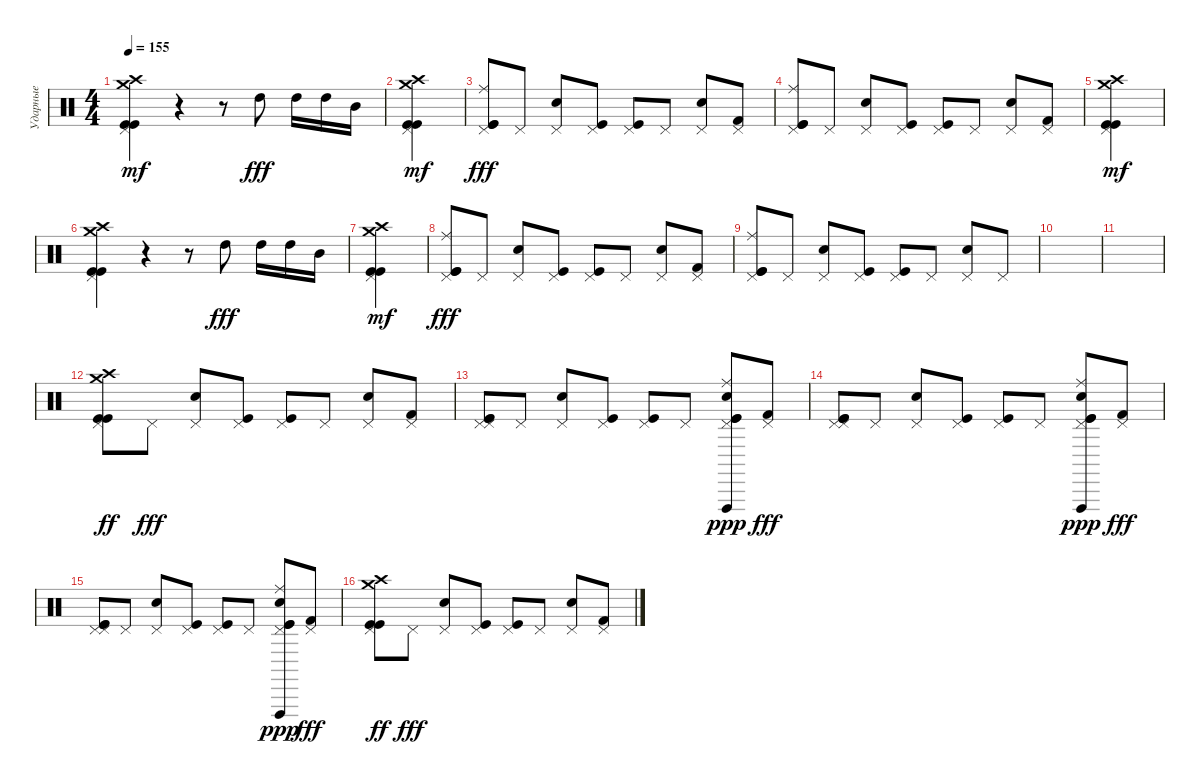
\track ("Ударные" "Ударные") {instrument percussion}
\staff
\articulation defaults
\ts (4 4)
\tempo 155
\clef neutral
\ks c
("Crash high (hit)" "Kick (hit)" "Pedal Hi-Hat (hit)" "Kick (hit)" "Crash medium (hit)").4{dy mf} r.4 r.8 "High Tom (hit)".8{dy fff} "High Tom (hit)".16 "High Tom (hit)".16 "Mid Tom (hit)".16 |
("Crash high (hit)" "Kick (hit)" "Pedal Hi-Hat (hit)" "Kick (hit)" "Crash medium (hit)").4{dy mf} |
("Kick (hit)" "Pedal Hi-Hat (hit)" "Kick (hit)" "Ride (middle)").8{dy fff} "Pedal Hi-Hat (hit)".8 ("Pedal Hi-Hat (hit)" "Snare (hit) 2").8 ("Pedal Hi-Hat (hit)" "Kick (hit)").8 ("Pedal Hi-Hat (hit)" "Kick (hit)").8 "Pedal Hi-Hat (hit)".8 ("Snare (hit) 2" "Pedal Hi-Hat (hit)").8 ("Kick (hit) 2" "Pedal Hi-Hat (hit)").8 |
("Kick (hit)" "Pedal Hi-Hat (hit)" "Kick (hit)" "Ride (middle)").8 "Pedal Hi-Hat (hit)".8 ("Pedal Hi-Hat (hit)" "Snare (hit) 2").8 ("Pedal Hi-Hat (hit)" "Kick (hit)").8 ("Pedal Hi-Hat (hit)" "Kick (hit)").8 "Pedal Hi-Hat (hit)".8 ("Snare (hit) 2" "Pedal Hi-Hat (hit)").8 ("Kick (hit) 2" "Pedal Hi-Hat (hit)").8 |
("Crash high (hit)" "Kick (hit)" "Pedal Hi-Hat (hit)" "Kick (hit)" "Crash medium (hit)").4{dy mf} |
("Crash high (hit)" "Kick (hit)" "Pedal Hi-Hat (hit)" "Kick (hit)" "Crash medium (hit)").4 r.4 r.8 "High Tom (hit)".8{dy fff} "High Tom (hit)".16 "High Tom (hit)".16 "Mid Tom (hit)".16 |
("Crash high (hit)" "Kick (hit)" "Pedal Hi-Hat (hit)" "Kick (hit)" "Crash medium (hit)").4{dy mf} |
("Kick (hit)" "Pedal Hi-Hat (hit)" "Kick (hit)" "Ride (middle)").8{dy fff} "Pedal Hi-Hat (hit)".8 ("Pedal Hi-Hat (hit)" "Snare (hit) 2").8 ("Pedal Hi-Hat (hit)" "Kick (hit)").8 ("Pedal Hi-Hat (hit)" "Kick (hit)").8 "Pedal Hi-Hat (hit)".8 ("Snare (hit) 2" "Pedal Hi-Hat (hit)").8 ("Kick (hit) 2" "Pedal Hi-Hat (hit)").8 |
("Kick (hit)" "Pedal Hi-Hat (hit)" "Kick (hit)" "Ride (middle)").8 "Pedal Hi-Hat (hit)".8 ("Pedal Hi-Hat (hit)" "Snare (hit) 2").8 ("Pedal Hi-Hat (hit)" "Kick (hit)").8 ("Pedal Hi-Hat (hit)" "Kick (hit)").8 "Pedal Hi-Hat (hit)".8 ("Snare (hit) 2" "Pedal Hi-Hat (hit)").8 "Pedal Hi-Hat (hit)".8 |
|
|
("Crash medium (hit)" "Kick (hit)" "Pedal Hi-Hat (hit)" "Kick (hit)" "Crash high (hit)").8{dy ff} "Pedal Hi-Hat (hit)".8{dy fff} ("Pedal Hi-Hat (hit)" "Snare (hit) 2").8 ("Pedal Hi-Hat (hit)" "Kick (hit)").8 ("Pedal Hi-Hat (hit)" "Kick (hit)").8 "Pedal Hi-Hat (hit)".8 ("Snare (hit) 2" "Pedal Hi-Hat (hit)").8 ("Kick (hit) 2" "Pedal Hi-Hat (hit)").8 |
("Kick (hit)" "Pedal Hi-Hat (hit)" "Kick (hit)" "Pedal Hi-Hat (hit)").8 "Pedal Hi-Hat (hit)".8 ("Pedal Hi-Hat (hit)" "Snare (hit) 2").8 ("Pedal Hi-Hat (hit)" "Kick (hit)").8 ("Pedal Hi-Hat (hit)" "Kick (hit)").8 "Pedal Hi-Hat (hit)".8 ("Kick (hit)" "Snare (hit) 2" "Pedal Hi-Hat (hit)" "Ride (middle)" "Vibraslap (hit)" "Kick (hit)").8{dy ppp} ("Kick (hit) 2" "Pedal Hi-Hat (hit)").8{dy fff} |
("Kick (hit)" "Pedal Hi-Hat (hit)" "Kick (hit)" "Pedal Hi-Hat (hit)").8 "Pedal Hi-Hat (hit)".8 ("Pedal Hi-Hat (hit)" "Snare (hit) 2").8 ("Pedal Hi-Hat (hit)" "Kick (hit)").8 ("Pedal Hi-Hat (hit)" "Kick (hit)").8 "Pedal Hi-Hat (hit)".8 ("Kick (hit)" "Snare (hit) 2" "Pedal Hi-Hat (hit)" "Ride (middle)" "Vibraslap (hit)" "Kick (hit)").8{dy ppp} ("Kick (hit) 2" "Pedal Hi-Hat (hit)").8{dy fff} |
("Kick (hit)" "Pedal Hi-Hat (hit)" "Kick (hit)" "Pedal Hi-Hat (hit)").8 "Pedal Hi-Hat (hit)".8 ("Pedal Hi-Hat (hit)" "Snare (hit) 2").8 ("Pedal Hi-Hat (hit)" "Kick (hit)").8 ("Pedal Hi-Hat (hit)" "Kick (hit)").8 "Pedal Hi-Hat (hit)".8 ("Kick (hit)" "Snare (hit) 2" "Pedal Hi-Hat (hit)" "Ride (middle)" "Vibraslap (hit)" "Kick (hit)").8{dy ppp} ("Kick (hit) 2" "Pedal Hi-Hat (hit)").8{dy fff} |
("Crash medium (hit)" "Kick (hit)" "Pedal Hi-Hat (hit)" "Kick (hit)" "Crash high (hit)").8{dy ff} "Pedal Hi-Hat (hit)".8{dy fff} ("Pedal Hi-Hat (hit)" "Snare (hit) 2").8 ("Pedal Hi-Hat (hit)" "Kick (hit)").8 ("Pedal Hi-Hat (hit)" "Kick (hit)").8 "Pedal Hi-Hat (hit)".8 ("Snare (hit) 2" "Pedal Hi-Hat (hit)").8 ("Kick (hit) 2" "Pedal Hi-Hat (hit)").8
